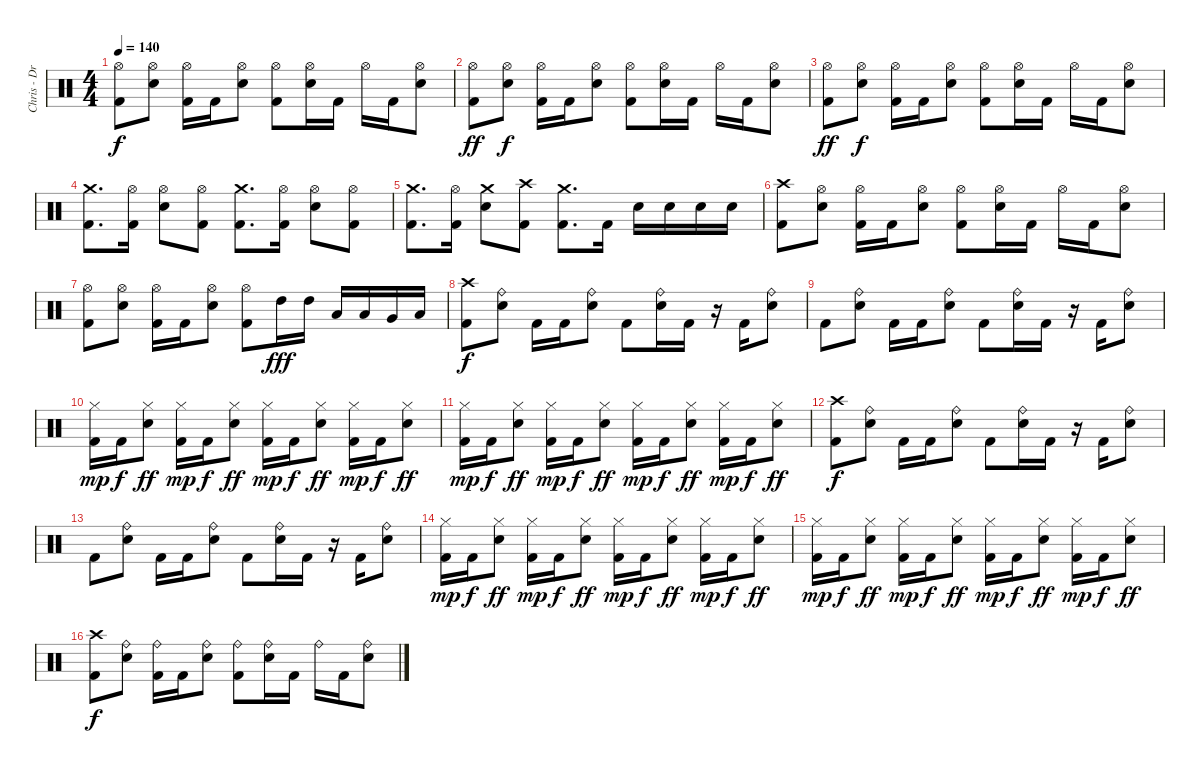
\track ("Chris - Drums" "Chris - Dr") {instrument percussion}
\staff {score}
\articulation defaults
\ts (4 4)
\tempo 140
\clef neutral
\ks c
("Hi-Hat (open)" "Kick (hit) 2").8{dy f} ("Hi-Hat (open)" "Electric Snare (hit)").8 ("Hi-Hat (open)" "Kick (hit) 2").16 "Kick (hit) 2".16 ("Hi-Hat (open)" "Electric Snare (hit)").8 ("Hi-Hat (open)" "Kick (hit) 2").8 ("Hi-Hat (open)" "Electric Snare (hit)").16 "Kick (hit) 2".16 "Hi-Hat (open)".16 "Kick (hit) 2".16 ("Hi-Hat (open)" "Electric Snare (hit)").8 |
("Hi-Hat (open)" "Kick (hit) 2").8{dy ff} ("Hi-Hat (open)" "Electric Snare (hit)").8{dy f} ("Hi-Hat (open)" "Kick (hit) 2").16 "Kick (hit) 2".16 ("Hi-Hat (open)" "Electric Snare (hit)").8 ("Hi-Hat (open)" "Kick (hit) 2").8 ("Hi-Hat (open)" "Electric Snare (hit)").16 "Kick (hit) 2".16 "Hi-Hat (open)".16 "Kick (hit) 2".16 ("Hi-Hat (open)" "Electric Snare (hit)").8 |
("Hi-Hat (open)" "Kick (hit) 2").8{dy ff} ("Hi-Hat (open)" "Electric Snare (hit)").8{dy f} ("Hi-Hat (open)" "Kick (hit) 2").16 "Kick (hit) 2".16 ("Hi-Hat (open)" "Electric Snare (hit)").8 ("Hi-Hat (open)" "Kick (hit) 2").8 ("Hi-Hat (open)" "Electric Snare (hit)").16 "Kick (hit) 2".16 "Hi-Hat (open)".16 "Kick (hit) 2".16 ("Hi-Hat (open)" "Electric Snare (hit)").8 |
("Crash medium (hit)" "Kick (hit) 2").8{d} ("Hi-Hat (open)" "Kick (hit) 2").16 ("Hi-Hat (open)" "Electric Snare (hit)").8 ("Hi-Hat (open)" "Kick (hit) 2").8 ("Crash medium (hit)" "Kick (hit) 2").8{d} ("Hi-Hat (open)" "Kick (hit) 2").16 ("Hi-Hat (open)" "Electric Snare (hit)").8 ("Hi-Hat (open)" "Kick (hit) 2").8 |
("Crash medium (hit)" "Kick (hit) 2").8{d} ("Hi-Hat (open)" "Kick (hit) 2").16 ("Crash medium (hit)" "Electric Snare (hit)").8 ("Crash high (hit)" "Kick (hit) 2").8 ("Crash medium (hit)" "Kick (hit) 2").8{d} "Kick (hit) 2".16 "Electric Snare (hit)".16 "Electric Snare (hit)".16 "Electric Snare (hit)".16 "Electric Snare (hit)".16 |
("Crash high (hit)" "Kick (hit) 2").8 ("Hi-Hat (open)" "Electric Snare (hit)").8 ("Hi-Hat (open)" "Kick (hit) 2").16 "Kick (hit) 2".16 ("Hi-Hat (open)" "Electric Snare (hit)").8 ("Hi-Hat (open)" "Kick (hit) 2").8 ("Hi-Hat (open)" "Electric Snare (hit)").16 "Kick (hit) 2".16 "Hi-Hat (open)".16 "Kick (hit) 2".16 ("Hi-Hat (open)" "Electric Snare (hit)").8 |
("Hi-Hat (open)" "Kick (hit) 2").8 ("Hi-Hat (open)" "Electric Snare (hit)").8 ("Hi-Hat (open)" "Kick (hit) 2").16 "Kick (hit) 2".16 ("Hi-Hat (open)" "Electric Snare (hit)").8 ("Hi-Hat (open)" "Kick (hit) 2").8 "High Tom (hit)".16{dy fff} "High Tom (hit)".16 "Low Tom (hit)".16 "Low Tom (hit)".16 "Very Low Tom (hit)".16 "Low Floor Tom (hit)".16 |
("Crash high (hit)" "Kick (hit) 2").8{dy f} ("Ride (bell)" "Electric Snare (hit)").8 "Kick (hit) 2".16 "Kick (hit) 2".16 ("Ride (bell)" "Electric Snare (hit)").8 "Kick (hit) 2".8 ("Ride (bell)" "Electric Snare (hit)").16 "Kick (hit) 2".16 r.16 "Kick (hit) 2".16 ("Ride (bell)" "Electric Snare (hit)").8 |
"Kick (hit) 2".8 ("Ride (bell)" "Electric Snare (hit)").8 "Kick (hit) 2".16 "Kick (hit) 2".16 ("Ride (bell)" "Electric Snare (hit)").8 "Kick (hit) 2".8 ("Ride (bell)" "Electric Snare (hit)").16 "Kick (hit) 2".16 r.16 "Kick (hit) 2".16 ("Ride (bell)" "Electric Snare (hit)").8 |
("Hi-Hat (closed)" "Kick (hit) 2").16{dy mp} "Kick (hit) 2".16{dy f} ("Hi-Hat (closed)" "Electric Snare (hit)").8{dy ff} ("Hi-Hat (closed)" "Kick (hit) 2").16{dy mp} "Kick (hit) 2".16{dy f} ("Hi-Hat (closed)" "Electric Snare (hit)").8{dy ff} ("Hi-Hat (closed)" "Kick (hit) 2").16{dy mp} "Kick (hit) 2".16{dy f} ("Hi-Hat (closed)" "Electric Snare (hit)").8{dy ff} ("Hi-Hat (closed)" "Kick (hit) 2").16{dy mp} "Kick (hit) 2".16{dy f} ("Hi-Hat (closed)" "Electric Snare (hit)").8{dy ff} |
("Hi-Hat (closed)" "Kick (hit) 2").16{dy mp} "Kick (hit) 2".16{dy f} ("Hi-Hat (closed)" "Electric Snare (hit)").8{dy ff} ("Hi-Hat (closed)" "Kick (hit) 2").16{dy mp} "Kick (hit) 2".16{dy f} ("Hi-Hat (closed)" "Electric Snare (hit)").8{dy ff} ("Hi-Hat (closed)" "Kick (hit) 2").16{dy mp} "Kick (hit) 2".16{dy f} ("Hi-Hat (closed)" "Electric Snare (hit)").8{dy ff} ("Hi-Hat (closed)" "Kick (hit) 2").16{dy mp} "Kick (hit) 2".16{dy f} ("Hi-Hat (closed)" "Electric Snare (hit)").8{dy ff} |
("Crash high (hit)" "Kick (hit) 2").8{dy f} ("Ride (bell)" "Electric Snare (hit)").8 "Kick (hit) 2".16 "Kick (hit) 2".16 ("Ride (bell)" "Electric Snare (hit)").8 "Kick (hit) 2".8 ("Ride (bell)" "Electric Snare (hit)").16 "Kick (hit) 2".16 r.16 "Kick (hit) 2".16 ("Ride (bell)" "Electric Snare (hit)").8 |
"Kick (hit) 2".8 ("Ride (bell)" "Electric Snare (hit)").8 "Kick (hit) 2".16 "Kick (hit) 2".16 ("Ride (bell)" "Electric Snare (hit)").8 "Kick (hit) 2".8 ("Ride (bell)" "Electric Snare (hit)").16 "Kick (hit) 2".16 r.16 "Kick (hit) 2".16 ("Ride (bell)" "Electric Snare (hit)").8 |
("Hi-Hat (closed)" "Kick (hit) 2").16{dy mp} "Kick (hit) 2".16{dy f} ("Hi-Hat (closed)" "Electric Snare (hit)").8{dy ff} ("Hi-Hat (closed)" "Kick (hit) 2").16{dy mp} "Kick (hit) 2".16{dy f} ("Hi-Hat (closed)" "Electric Snare (hit)").8{dy ff} ("Hi-Hat (closed)" "Kick (hit) 2").16{dy mp} "Kick (hit) 2".16{dy f} ("Hi-Hat (closed)" "Electric Snare (hit)").8{dy ff} ("Hi-Hat (closed)" "Kick (hit) 2").16{dy mp} "Kick (hit) 2".16{dy f} ("Hi-Hat (closed)" "Electric Snare (hit)").8{dy ff} |
("Hi-Hat (closed)" "Kick (hit) 2").16{dy mp} "Kick (hit) 2".16{dy f} ("Hi-Hat (closed)" "Electric Snare (hit)").8{dy ff} ("Hi-Hat (closed)" "Kick (hit) 2").16{dy mp} "Kick (hit) 2".16{dy f} ("Hi-Hat (closed)" "Electric Snare (hit)").8{dy ff} ("Hi-Hat (closed)" "Kick (hit) 2").16{dy mp} "Kick (hit) 2".16{dy f} ("Hi-Hat (closed)" "Electric Snare (hit)").8{dy ff} ("Hi-Hat (closed)" "Kick (hit) 2").16{dy mp} "Kick (hit) 2".16{dy f} ("Hi-Hat (closed)" "Electric Snare (hit)").8{dy ff} |
("Crash high (hit)" "Kick (hit) 2").8{dy f} ("Ride (bell)" "Electric Snare (hit)").8 ("Ride (bell)" "Kick (hit) 2").16 "Kick (hit) 2".16 ("Ride (bell)" "Electric Snare (hit)").8 ("Ride (bell)" "Kick (hit) 2").8 ("Ride (bell)" "Electric Snare (hit)").16 "Kick (hit) 2".16 "Ride (bell)".16 "Kick (hit) 2".16 ("Ride (bell)" "Electric Snare (hit)").8
